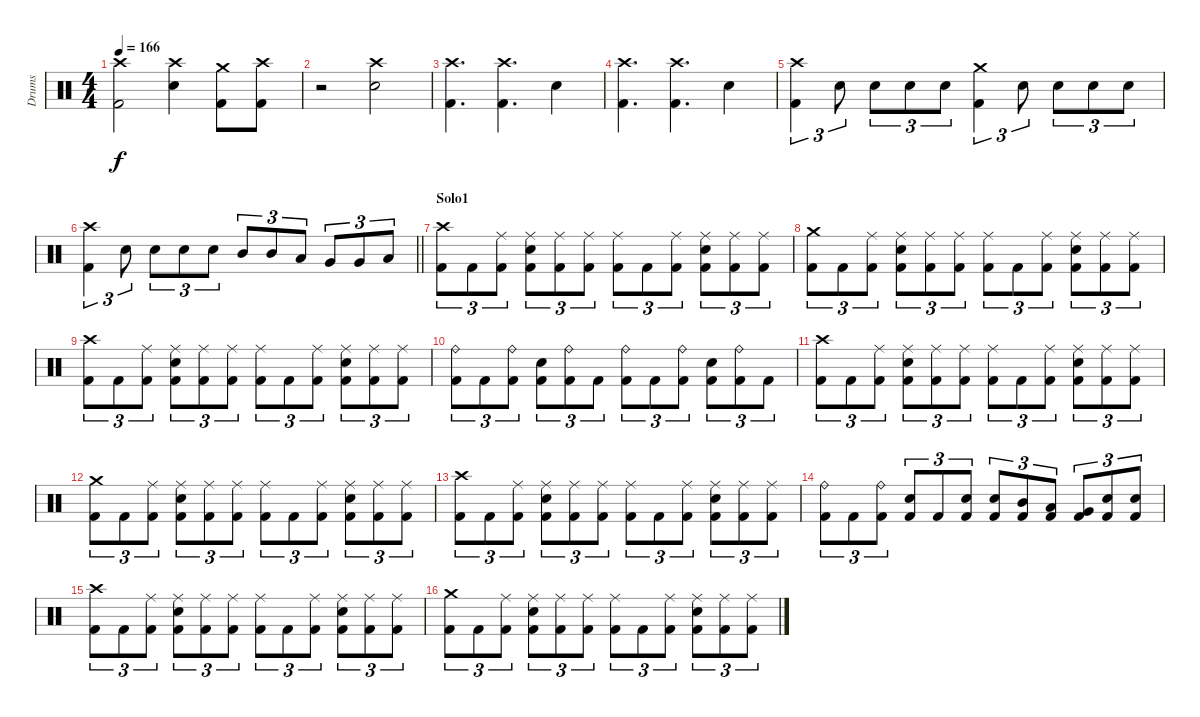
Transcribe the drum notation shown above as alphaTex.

\track ("Drums" "Drums") {instrument percussion}
\staff {score}
\articulation defaults
\ts (4 4)
\tempo 166
\clef neutral
\ks c
("Crash high (hit)" "Kick (hit) 2").2{dy f} ("Crash high (hit)" "Snare (hit) 2").4 ("Crash medium (hit)" "Kick (hit) 2").8 ("Crash high (hit)" "Kick (hit) 2").8 |
r.2 ("Crash high (hit)" "Snare (hit) 2").2 |
("Crash high (hit)" "Kick (hit) 2").4{d} ("Crash high (hit)" "Kick (hit) 2").4{d} "Snare (hit) 2".4 |
("Crash high (hit)" "Kick (hit) 2").4{d} ("Crash high (hit)" "Kick (hit) 2").4{d} "Snare (hit) 2".4 |
("Crash high (hit)" "Kick (hit) 2").4{tu (3 2)} "Snare (hit) 2".8{tu (3 2)} "Snare (hit) 2".8{tu (3 2)} "Snare (hit) 2".8{tu (3 2)} "Snare (hit) 2".8{tu (3 2)} ("Crash medium (hit)" "Kick (hit) 2").4{tu (3 2)} "Snare (hit) 2".8{tu (3 2)} "Snare (hit) 2".8{tu (3 2)} "Snare (hit) 2".8{tu (3 2)} "Snare (hit) 2".8{tu (3 2)} |
\barLineRight lightlight
("Crash high (hit)" "Kick (hit) 2").4{tu (3 2)} "Snare (hit) 2".8{tu (3 2)} "Snare (hit) 2".8{tu (3 2)} "Snare (hit) 2".8{tu (3 2)} "Snare (hit) 2".8{tu (3 2)} "Mid Tom (hit)".8{tu (3 2)} "Mid Tom (hit)".8{tu (3 2)} "Low Tom (hit)".8{tu (3 2)} "Very Low Tom (hit)".8{tu (3 2)} "Very Low Tom (hit)".8{tu (3 2)} "Low Floor Tom (hit)".8{tu (3 2)} |
\section ("" "Solo1")
("Crash high (hit)" "Kick (hit) 2").8{tu (3 2)} "Kick (hit) 2".8{tu (3 2)} ("Ride (middle)" "Kick (hit) 2").8{tu (3 2)} ("Ride (middle)" "Snare (hit) 2" "Kick (hit) 2").8{tu (3 2)} ("Ride (middle)" "Kick (hit) 2").8{tu (3 2)} ("Ride (middle)" "Kick (hit) 2").8{tu (3 2)} ("Ride (middle)" "Kick (hit) 2").8{tu (3 2)} "Kick (hit) 2".8{tu (3 2)} ("Ride (middle)" "Kick (hit) 2").8{tu (3 2)} ("Ride (middle)" "Snare (hit) 2" "Kick (hit) 2").8{tu (3 2)} ("Ride (middle)" "Kick (hit) 2").8{tu (3 2)} ("Ride (middle)" "Kick (hit) 2").8{tu (3 2)} |
("Crash medium (hit)" "Kick (hit) 2").8{tu (3 2)} "Kick (hit) 2".8{tu (3 2)} ("Ride (middle)" "Kick (hit) 2").8{tu (3 2)} ("Ride (middle)" "Snare (hit) 2" "Kick (hit) 2").8{tu (3 2)} ("Ride (middle)" "Kick (hit) 2").8{tu (3 2)} ("Ride (middle)" "Kick (hit) 2").8{tu (3 2)} ("Ride (middle)" "Kick (hit) 2").8{tu (3 2)} "Kick (hit) 2".8{tu (3 2)} ("Ride (middle)" "Kick (hit) 2").8{tu (3 2)} ("Ride (middle)" "Snare (hit) 2" "Kick (hit) 2").8{tu (3 2)} ("Ride (middle)" "Kick (hit) 2").8{tu (3 2)} ("Ride (middle)" "Kick (hit) 2").8{tu (3 2)} |
("Crash high (hit)" "Kick (hit) 2").8{tu (3 2)} "Kick (hit) 2".8{tu (3 2)} ("Ride (middle)" "Kick (hit) 2").8{tu (3 2)} ("Ride (middle)" "Snare (hit) 2" "Kick (hit) 2").8{tu (3 2)} ("Ride (middle)" "Kick (hit) 2").8{tu (3 2)} ("Ride (middle)" "Kick (hit) 2").8{tu (3 2)} ("Ride (middle)" "Kick (hit) 2").8{tu (3 2)} "Kick (hit) 2".8{tu (3 2)} ("Ride (middle)" "Kick (hit) 2").8{tu (3 2)} ("Ride (middle)" "Snare (hit) 2" "Kick (hit) 2").8{tu (3 2)} ("Ride (middle)" "Kick (hit) 2").8{tu (3 2)} ("Ride (middle)" "Kick (hit) 2").8{tu (3 2)} |
("Ride (bell)" "Kick (hit) 2").8{tu (3 2)} "Kick (hit) 2".8{tu (3 2)} ("Ride (bell)" "Kick (hit) 2").8{tu (3 2)} ("Snare (hit) 2" "Kick (hit) 2").8{tu (3 2)} ("Ride (bell)" "Kick (hit) 2").8{tu (3 2)} "Kick (hit) 2".8{tu (3 2)} ("Ride (bell)" "Kick (hit) 2").8{tu (3 2)} "Kick (hit) 2".8{tu (3 2)} ("Ride (bell)" "Kick (hit) 2").8{tu (3 2)} ("Snare (hit) 2" "Kick (hit) 2").8{tu (3 2)} ("Ride (bell)" "Kick (hit) 2").8{tu (3 2)} "Kick (hit) 2".8{tu (3 2)} |
("Crash high (hit)" "Kick (hit) 2").8{tu (3 2)} "Kick (hit) 2".8{tu (3 2)} ("Ride (middle)" "Kick (hit) 2").8{tu (3 2)} ("Ride (middle)" "Snare (hit) 2" "Kick (hit) 2").8{tu (3 2)} ("Ride (middle)" "Kick (hit) 2").8{tu (3 2)} ("Ride (middle)" "Kick (hit) 2").8{tu (3 2)} ("Ride (middle)" "Kick (hit) 2").8{tu (3 2)} "Kick (hit) 2".8{tu (3 2)} ("Ride (middle)" "Kick (hit) 2").8{tu (3 2)} ("Ride (middle)" "Snare (hit) 2" "Kick (hit) 2").8{tu (3 2)} ("Ride (middle)" "Kick (hit) 2").8{tu (3 2)} ("Ride (middle)" "Kick (hit) 2").8{tu (3 2)} |
("Crash medium (hit)" "Kick (hit) 2").8{tu (3 2)} "Kick (hit) 2".8{tu (3 2)} ("Ride (middle)" "Kick (hit) 2").8{tu (3 2)} ("Ride (middle)" "Snare (hit) 2" "Kick (hit) 2").8{tu (3 2)} ("Ride (middle)" "Kick (hit) 2").8{tu (3 2)} ("Ride (middle)" "Kick (hit) 2").8{tu (3 2)} ("Ride (middle)" "Kick (hit) 2").8{tu (3 2)} "Kick (hit) 2".8{tu (3 2)} ("Ride (middle)" "Kick (hit) 2").8{tu (3 2)} ("Ride (middle)" "Snare (hit) 2" "Kick (hit) 2").8{tu (3 2)} ("Ride (middle)" "Kick (hit) 2").8{tu (3 2)} ("Ride (middle)" "Kick (hit) 2").8{tu (3 2)} |
("Crash high (hit)" "Kick (hit) 2").8{tu (3 2)} "Kick (hit) 2".8{tu (3 2)} ("Ride (middle)" "Kick (hit) 2").8{tu (3 2)} ("Ride (middle)" "Snare (hit) 2" "Kick (hit) 2").8{tu (3 2)} ("Ride (middle)" "Kick (hit) 2").8{tu (3 2)} ("Ride (middle)" "Kick (hit) 2").8{tu (3 2)} ("Ride (middle)" "Kick (hit) 2").8{tu (3 2)} "Kick (hit) 2".8{tu (3 2)} ("Ride (middle)" "Kick (hit) 2").8{tu (3 2)} ("Ride (middle)" "Snare (hit) 2" "Kick (hit) 2").8{tu (3 2)} ("Ride (middle)" "Kick (hit) 2").8{tu (3 2)} ("Ride (middle)" "Kick (hit) 2").8{tu (3 2)} |
("Ride (bell)" "Kick (hit) 2").8{tu (3 2)} "Kick (hit) 2".8{tu (3 2)} ("Ride (bell)" "Kick (hit) 2").8{tu (3 2)} ("Snare (hit) 2" "Kick (hit) 2").8{tu (3 2)} "Kick (hit) 2".8{tu (3 2)} ("Snare (hit) 2" "Kick (hit) 2").8{tu (3 2)} ("Snare (hit) 2" "Kick (hit) 2").8{tu (3 2)} ("Mid Tom (hit)" "Kick (hit) 2").8{tu (3 2)} ("Low Tom (hit)" "Kick (hit) 2").8{tu (3 2)} ("Very Low Tom (hit)" "Kick (hit) 2").8{tu (3 2)} ("Snare (hit) 2" "Kick (hit) 2").8{tu (3 2)} ("Snare (hit) 2" "Kick (hit) 2").8{tu (3 2)} |
("Crash high (hit)" "Kick (hit) 2").8{tu (3 2)} "Kick (hit) 2".8{tu (3 2)} ("Ride (middle)" "Kick (hit) 2").8{tu (3 2)} ("Ride (middle)" "Snare (hit) 2" "Kick (hit) 2").8{tu (3 2)} ("Ride (middle)" "Kick (hit) 2").8{tu (3 2)} ("Ride (middle)" "Kick (hit) 2").8{tu (3 2)} ("Ride (middle)" "Kick (hit) 2").8{tu (3 2)} "Kick (hit) 2".8{tu (3 2)} ("Ride (middle)" "Kick (hit) 2").8{tu (3 2)} ("Ride (middle)" "Snare (hit) 2" "Kick (hit) 2").8{tu (3 2)} ("Ride (middle)" "Kick (hit) 2").8{tu (3 2)} ("Ride (middle)" "Kick (hit) 2").8{tu (3 2)} |
("Crash medium (hit)" "Kick (hit) 2").8{tu (3 2)} "Kick (hit) 2".8{tu (3 2)} ("Ride (middle)" "Kick (hit) 2").8{tu (3 2)} ("Ride (middle)" "Snare (hit) 2" "Kick (hit) 2").8{tu (3 2)} ("Ride (middle)" "Kick (hit) 2").8{tu (3 2)} ("Ride (middle)" "Kick (hit) 2").8{tu (3 2)} ("Ride (middle)" "Kick (hit) 2").8{tu (3 2)} "Kick (hit) 2".8{tu (3 2)} ("Ride (middle)" "Kick (hit) 2").8{tu (3 2)} ("Ride (middle)" "Snare (hit) 2" "Kick (hit) 2").8{tu (3 2)} ("Ride (middle)" "Kick (hit) 2").8{tu (3 2)} ("Ride (middle)" "Kick (hit) 2").8{tu (3 2)}
